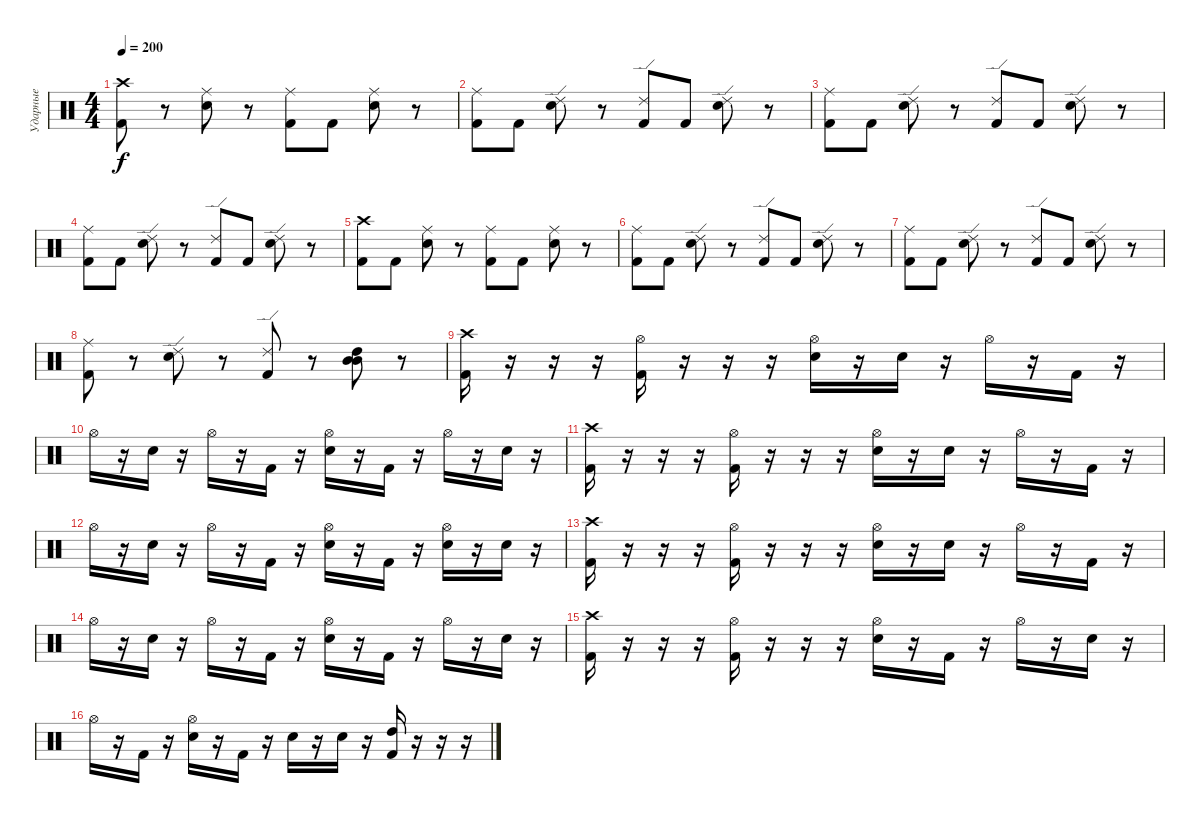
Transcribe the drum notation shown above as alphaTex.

\track ("Ударные" "Ударные") {instrument percussion}
\staff {score}
\articulation defaults
\ts (4 4)
\tempo 200
\clef neutral
\ks c
("Crash high (hit)" "Kick (hit) 2").8{dy f} r.8 ("Ride (middle)" "Electric Snare (hit)").8 r.8 ("Ride (middle)" "Kick (hit) 2").8 "Kick (hit) 2".8 ("Ride (middle)" "Electric Snare (hit)").8 r.8 |
("Ride (middle)" "Kick (hit) 2").8 "Kick (hit) 2".8 ("Ride (edge) 2" "Electric Snare (hit)").8 r.8 ("Ride (edge) 2" "Kick (hit) 2").8 "Kick (hit) 2".8 ("Ride (edge) 2" "Electric Snare (hit)").8 r.8 |
("Ride (middle)" "Kick (hit) 2").8 "Kick (hit) 2".8 ("Ride (edge) 2" "Electric Snare (hit)").8 r.8 ("Ride (edge) 2" "Kick (hit) 2").8 "Kick (hit) 2".8 ("Ride (edge) 2" "Electric Snare (hit)").8 r.8 |
("Ride (middle)" "Kick (hit) 2").8 "Kick (hit) 2".8 ("Ride (edge) 2" "Electric Snare (hit)").8 r.8 ("Ride (edge) 2" "Kick (hit) 2").8 "Kick (hit) 2".8 ("Ride (edge) 2" "Electric Snare (hit)").8 r.8 |
("Crash high (hit)" "Kick (hit) 2").8 "Kick (hit) 2".8 ("Ride (middle)" "Electric Snare (hit)").8 r.8 ("Ride (middle)" "Kick (hit) 2").8 "Kick (hit) 2".8 ("Ride (middle)" "Electric Snare (hit)").8 r.8 |
("Ride (middle)" "Kick (hit) 2").8 "Kick (hit) 2".8 ("Ride (edge) 2" "Electric Snare (hit)").8 r.8 ("Ride (edge) 2" "Kick (hit) 2").8 "Kick (hit) 2".8 ("Ride (edge) 2" "Electric Snare (hit)").8 r.8 |
("Ride (middle)" "Kick (hit) 2").8 "Kick (hit) 2".8 ("Ride (edge) 2" "Electric Snare (hit)").8 r.8 ("Ride (edge) 2" "Kick (hit) 2").8 "Kick (hit) 2".8 ("Ride (edge) 2" "Electric Snare (hit)").8 r.8 |
("Ride (middle)" "Kick (hit) 2").8 r.8 ("Ride (edge) 2" "Electric Snare (hit)").8 r.8 ("Ride (edge) 2" "Kick (hit) 2").8 r.8 ("Mid Tom (hit)" "High Tom (hit)" "Mid Tom (hit)").8 r.8 |
("Crash high (hit)" "Kick (hit) 2").16 r.16 r.16 r.16 ("Hi-Hat (open)" "Kick (hit) 2").16 r.16 r.16 r.16 ("Hi-Hat (open)" "Electric Snare (hit)").16 r.16 "Electric Snare (hit)".16 r.16 "Hi-Hat (open)".16 r.16 "Kick (hit) 2".16 r.16 |
"Hi-Hat (open)".16 r.16 "Electric Snare (hit)".16 r.16 "Hi-Hat (open)".16 r.16 "Kick (hit) 2".16 r.16 ("Hi-Hat (open)" "Electric Snare (hit)").16 r.16 "Kick (hit) 2".16 r.16 "Hi-Hat (open)".16 r.16 "Electric Snare (hit)".16 r.16 |
("Crash high (hit)" "Kick (hit) 2").16 r.16 r.16 r.16 ("Hi-Hat (open)" "Kick (hit) 2").16 r.16 r.16 r.16 ("Hi-Hat (open)" "Electric Snare (hit)").16 r.16 "Electric Snare (hit)".16 r.16 "Hi-Hat (open)".16 r.16 "Kick (hit) 2".16 r.16 |
"Hi-Hat (open)".16 r.16 "Electric Snare (hit)".16 r.16 "Hi-Hat (open)".16 r.16 "Kick (hit) 2".16 r.16 ("Hi-Hat (open)" "Electric Snare (hit)").16 r.16 "Kick (hit) 2".16 r.16 ("Hi-Hat (open)" "Electric Snare (hit)").16 r.16 "Electric Snare (hit)".16 r.16 |
("Crash high (hit)" "Kick (hit) 2").16 r.16 r.16 r.16 ("Hi-Hat (open)" "Kick (hit) 2").16 r.16 r.16 r.16 ("Hi-Hat (open)" "Electric Snare (hit)").16 r.16 "Electric Snare (hit)".16 r.16 "Hi-Hat (open)".16 r.16 "Kick (hit) 2".16 r.16 |
"Hi-Hat (open)".16 r.16 "Electric Snare (hit)".16 r.16 "Hi-Hat (open)".16 r.16 "Kick (hit) 2".16 r.16 ("Hi-Hat (open)" "Electric Snare (hit)").16 r.16 "Kick (hit) 2".16 r.16 "Hi-Hat (open)".16 r.16 "Electric Snare (hit)".16 r.16 |
("Crash high (hit)" "Kick (hit) 2").16 r.16 r.16 r.16 ("Hi-Hat (open)" "Kick (hit) 2").16 r.16 r.16 r.16 ("Hi-Hat (open)" "Electric Snare (hit)").16 r.16 "Kick (hit) 2".16 r.16 "Hi-Hat (open)".16 r.16 "Electric Snare (hit)".16 r.16 |
"Hi-Hat (open)".16 r.16 "Kick (hit) 2".16 r.16 ("Hi-Hat (open)" "Electric Snare (hit)").16 r.16 "Kick (hit) 2".16 r.16 "Electric Snare (hit)".16 r.16 "Electric Snare (hit)".16 r.16 ("High Tom (hit)" "Kick (hit) 2").16 r.16 r.16 r.16
